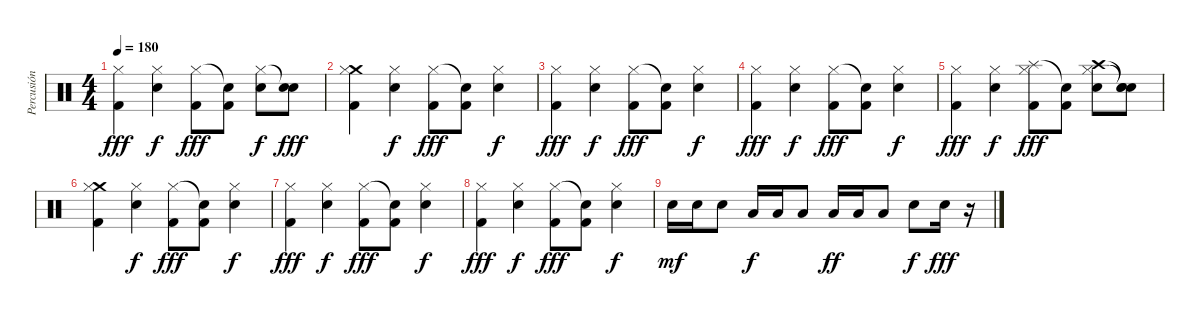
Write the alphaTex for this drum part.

\track ("Percusión" "Percusión") {instrument percussion}
\staff {score}
\articulation defaults
\ts (4 4)
\tempo 180
\clef neutral
\ks c
("Hi-Hat (closed)" "Kick (hit) 2").4{dy fff} ("Snare (hit) 2" "Hi-Hat (closed)").4{dy f} ("Hi-Hat (closed)" "Kick (hit) 2").8{dy fff} ("Snare (hit)"{t} "Kick (hit) 2").8 ("Snare (hit) 2" "Hi-Hat (closed)").8{dy f} ("Snare (hit) 2" "Snare (hit)"{t}).8{dy fff} |
("Crash medium (hit)" "Hi-Hat (closed)" "Kick (hit) 2").4 ("Snare (hit) 2" "Hi-Hat (closed)").4{dy f} ("Hi-Hat (closed)" "Kick (hit) 2").8{dy fff} ("Snare (hit)"{t} "Kick (hit) 2").8 ("Snare (hit) 2" "Hi-Hat (closed)").4{dy f} |
("Hi-Hat (closed)" "Kick (hit) 2").4{dy fff} ("Snare (hit) 2" "Hi-Hat (closed)").4{dy f} ("Hi-Hat (closed)" "Kick (hit) 2").8{dy fff} ("Snare (hit)"{t} "Kick (hit) 2").8 ("Snare (hit) 2" "Hi-Hat (closed)").4{dy f} |
("Hi-Hat (closed)" "Kick (hit) 2").4{dy fff} ("Snare (hit) 2" "Hi-Hat (closed)").4{dy f} ("Hi-Hat (closed)" "Kick (hit) 2").8{dy fff} ("Snare (hit)"{t} "Kick (hit) 2").8 ("Snare (hit) 2" "Hi-Hat (closed)").4{dy f} |
("Hi-Hat (closed)" "Kick (hit) 2").4{dy fff} ("Snare (hit) 2" "Hi-Hat (closed)").4{dy f} ("Splash (hit)" "Hi-Hat (closed)" "Kick (hit) 2").8{dy fff} ("Snare (hit)"{t} "Kick (hit) 2").8 ("Crash high (hit)" "Snare (hit) 2" "Hi-Hat (closed)").8 ("Snare (hit)"{t} "Snare (hit) 2" "Snare (hit)"{t}).8 |
("Crash medium (hit)" "Hi-Hat (closed)" "Kick (hit) 2").4 ("Snare (hit) 2" "Hi-Hat (closed)").4{dy f} ("Hi-Hat (closed)" "Kick (hit) 2").8{dy fff} ("Snare (hit)"{t} "Kick (hit) 2").8 ("Snare (hit) 2" "Hi-Hat (closed)").4{dy f} |
("Hi-Hat (closed)" "Kick (hit) 2").4{dy fff} ("Snare (hit) 2" "Hi-Hat (closed)").4{dy f} ("Hi-Hat (closed)" "Kick (hit) 2").8{dy fff} ("Snare (hit)"{t} "Kick (hit) 2").8 ("Snare (hit) 2" "Hi-Hat (closed)").4{dy f} |
("Hi-Hat (closed)" "Kick (hit) 2").4{dy fff} ("Snare (hit) 2" "Hi-Hat (closed)").4{dy f} ("Hi-Hat (closed)" "Kick (hit) 2").8{dy fff} ("Snare (hit)"{t} "Kick (hit) 2").8 ("Snare (hit) 2" "Hi-Hat (closed)").4{dy f} |
"Snare (hit) 2".16{dy mf} "Snare (hit) 2".16 "Snare (hit) 2".8 "Low Tom (hit)".16{dy f} "Low Tom (hit)".16 "Low Tom (hit)".8 "Low Floor Tom (hit)".16{dy ff} "Low Floor Tom (hit)".16 "Low Floor Tom (hit)".8 "Electric Snare (hit)".8{dy f} "Electric Snare (hit)".16{dy fff} r.16
